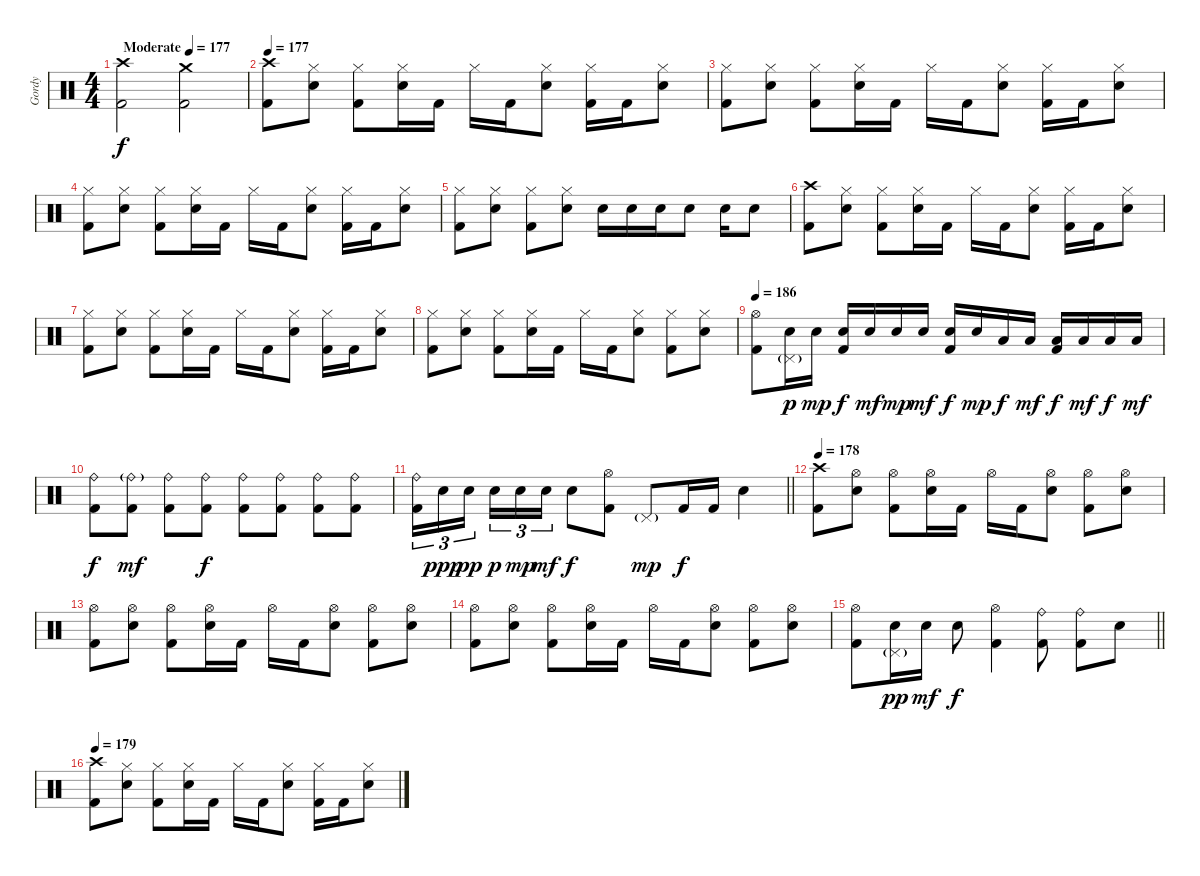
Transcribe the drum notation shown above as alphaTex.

\track ("Gordy" "Gordy") {instrument percussion}
\staff {score}
\articulation defaults
\ts (4 4)
\tempo (177 "Moderate")
\tempo 155
\tempo (177 "Moderate")
\clef neutral
\ks c
("Crash high (hit)" "Kick (hit) 2").2{dy f} ("Crash medium (hit)" "Kick (hit) 2").2 |
\tempo 177
("Crash high (hit)" "Kick (hit) 2").8 ("Hi-Hat (closed)" "Electric Snare (hit)").8 ("Hi-Hat (closed)" "Kick (hit) 2").8 ("Hi-Hat (closed)" "Electric Snare (hit)").16 "Kick (hit) 2".16 "Hi-Hat (closed)".16 "Kick (hit) 2".16 ("Hi-Hat (closed)" "Electric Snare (hit)").8 ("Hi-Hat (closed)" "Kick (hit) 2").16 "Kick (hit) 2".16 ("Hi-Hat (closed)" "Electric Snare (hit)").8 |
("Hi-Hat (closed)" "Kick (hit) 2").8 ("Hi-Hat (closed)" "Electric Snare (hit)").8 ("Hi-Hat (closed)" "Kick (hit) 2").8 ("Hi-Hat (closed)" "Electric Snare (hit)").16 "Kick (hit) 2".16 "Hi-Hat (closed)".16 "Kick (hit) 2".16 ("Hi-Hat (closed)" "Electric Snare (hit)").8 ("Hi-Hat (closed)" "Kick (hit) 2").16 "Kick (hit) 2".16 ("Hi-Hat (closed)" "Electric Snare (hit)").8 |
("Hi-Hat (closed)" "Kick (hit) 2").8 ("Hi-Hat (closed)" "Electric Snare (hit)").8 ("Hi-Hat (closed)" "Kick (hit) 2").8 ("Hi-Hat (closed)" "Electric Snare (hit)").16 "Kick (hit) 2".16 "Hi-Hat (closed)".16 "Kick (hit) 2".16 ("Hi-Hat (closed)" "Electric Snare (hit)").8 ("Hi-Hat (closed)" "Kick (hit) 2").16 "Kick (hit) 2".16 ("Hi-Hat (closed)" "Electric Snare (hit)").8 |
("Hi-Hat (closed)" "Kick (hit) 2").8 ("Hi-Hat (closed)" "Electric Snare (hit)").8 ("Hi-Hat (closed)" "Kick (hit) 2").8 ("Hi-Hat (closed)" "Electric Snare (hit)").8 "Electric Snare (hit)".16 "Electric Snare (hit)".16 "Electric Snare (hit)".16 "Electric Snare (hit)".8 "Electric Snare (hit)".16 "Electric Snare (hit)".8 |
("Crash high (hit)" "Kick (hit) 2").8 ("Hi-Hat (closed)" "Electric Snare (hit)").8 ("Hi-Hat (closed)" "Kick (hit) 2").8 ("Hi-Hat (closed)" "Electric Snare (hit)").16 "Kick (hit) 2".16 "Hi-Hat (closed)".16 "Kick (hit) 2".16 ("Hi-Hat (closed)" "Electric Snare (hit)").8 ("Hi-Hat (closed)" "Kick (hit) 2").16 "Kick (hit) 2".16 ("Hi-Hat (closed)" "Electric Snare (hit)").8 |
("Hi-Hat (closed)" "Kick (hit) 2").8 ("Hi-Hat (closed)" "Electric Snare (hit)").8 ("Hi-Hat (closed)" "Kick (hit) 2").8 ("Hi-Hat (closed)" "Electric Snare (hit)").16 "Kick (hit) 2".16 "Hi-Hat (closed)".16 "Kick (hit) 2".16 ("Hi-Hat (closed)" "Electric Snare (hit)").8 ("Hi-Hat (closed)" "Kick (hit) 2").16 "Kick (hit) 2".16 ("Hi-Hat (closed)" "Electric Snare (hit)").8 |
("Hi-Hat (closed)" "Kick (hit) 2").8 ("Hi-Hat (closed)" "Electric Snare (hit)").8 ("Hi-Hat (closed)" "Kick (hit) 2").8 ("Hi-Hat (closed)" "Electric Snare (hit)").16 "Kick (hit) 2".16 "Hi-Hat (closed)".16 "Kick (hit) 2".16 ("Hi-Hat (closed)" "Electric Snare (hit)").8 ("Hi-Hat (closed)" "Kick (hit) 2").8 ("Hi-Hat (closed)" "Electric Snare (hit)").8 |
\tempo 186
("Hi-Hat (open)" "Kick (hit) 2").8 ("Pedal Hi-Hat (hit)"{g} "Electric Snare (hit)").16{dy p} "Electric Snare (hit)".16{dy mp} ("Electric Snare (hit)" "Kick (hit) 2").16{dy f} "Electric Snare (hit)".16{dy mf} "Electric Snare (hit)".16{dy mp} "Electric Snare (hit)".16{dy mf} ("Electric Snare (hit)" "Kick (hit) 2").16{dy f} "Electric Snare (hit)".16{dy mp} "Low Tom (hit)".16{dy f} "Low Floor Tom (hit)".16{dy mf} ("Low Tom (hit)" "Kick (hit) 2").16{dy f} "Low Floor Tom (hit)".16{dy mf} "Low Tom (hit)".16{dy f} "Low Floor Tom (hit)".16{dy mf} |
("Ride (bell)" "Kick (hit) 2").8{dy f} ("Ride (bell)"{g} "Kick (hit) 2").8{dy mf} ("Ride (bell)" "Kick (hit) 2").8 ("Ride (bell)" "Kick (hit) 2").8{dy f} ("Ride (bell)" "Kick (hit) 2").8 ("Ride (bell)" "Kick (hit) 2").8 ("Ride (bell)" "Kick (hit) 2").8 ("Ride (bell)" "Kick (hit) 2").8 |
\barLineRight lightlight
("Ride (bell)" "Kick (hit) 2").16{tu (3 2)} "Electric Snare (hit)".16{tu (3 2) dy ppp} "Electric Snare (hit)".16{tu (3 2) dy pp beam splitsecondary} "Electric Snare (hit)".16{tu (3 2) dy p} "Electric Snare (hit)".16{tu (3 2) dy mp} "Electric Snare (hit)".16{tu (3 2) dy mf} "Electric Snare (hit)".8{dy f} ("Hi-Hat (open)" "Kick (hit) 2").8 "Pedal Hi-Hat (hit)"{g}.8{dy mp} "Kick (hit) 2".16{dy f} "Kick (hit) 2".16 "Electric Snare (hit)".4 |
\section ("" "")
\tempo 178
("Crash high (hit)" "Kick (hit) 2").8 ("Hi-Hat (open)" "Electric Snare (hit)").8 ("Hi-Hat (open)" "Kick (hit) 2").8 ("Hi-Hat (open)" "Electric Snare (hit)").16 "Kick (hit) 2".16 "Hi-Hat (open)".16 "Kick (hit) 2".16 ("Hi-Hat (open)" "Electric Snare (hit)").8 ("Hi-Hat (open)" "Kick (hit) 2").8 ("Hi-Hat (open)" "Electric Snare (hit)").8 |
("Hi-Hat (open)" "Kick (hit) 2").8 ("Hi-Hat (open)" "Electric Snare (hit)").8 ("Hi-Hat (open)" "Kick (hit) 2").8 ("Hi-Hat (open)" "Electric Snare (hit)").16 "Kick (hit) 2".16 "Hi-Hat (open)".16 "Kick (hit) 2".16 ("Hi-Hat (open)" "Electric Snare (hit)").8 ("Hi-Hat (open)" "Kick (hit) 2").8 ("Hi-Hat (open)" "Electric Snare (hit)").8 |
("Hi-Hat (open)" "Kick (hit) 2").8 ("Hi-Hat (open)" "Electric Snare (hit)").8 ("Hi-Hat (open)" "Kick (hit) 2").8 ("Hi-Hat (open)" "Electric Snare (hit)").16 "Kick (hit) 2".16 "Hi-Hat (open)".16 "Kick (hit) 2".16 ("Hi-Hat (open)" "Electric Snare (hit)").8 ("Hi-Hat (open)" "Kick (hit) 2").8 ("Hi-Hat (open)" "Electric Snare (hit)").8 |
\barLineRight lightlight
("Hi-Hat (open)" "Kick (hit) 2").8 ("Pedal Hi-Hat (hit)"{g} "Electric Snare (hit)").16{dy pp} "Electric Snare (hit)".16{dy mf} "Electric Snare (hit)".8{dy f} ("Hi-Hat (open)" "Kick (hit) 2").4 ("Ride (bell)" "Kick (hit) 2").8 ("Ride (bell)" "Kick (hit) 2").8 "Electric Snare (hit)".8 |
\section ("" "")
\tempo 179
("Crash high (hit)" "Kick (hit) 2").8 ("Hi-Hat (closed)" "Electric Snare (hit)").8 ("Hi-Hat (closed)" "Kick (hit) 2").8 ("Hi-Hat (closed)" "Electric Snare (hit)").16 "Kick (hit) 2".16 "Hi-Hat (closed)".16 "Kick (hit) 2".16 ("Hi-Hat (closed)" "Electric Snare (hit)").8 ("Hi-Hat (closed)" "Kick (hit) 2").16 "Kick (hit) 2".16 ("Hi-Hat (closed)" "Electric Snare (hit)").8
